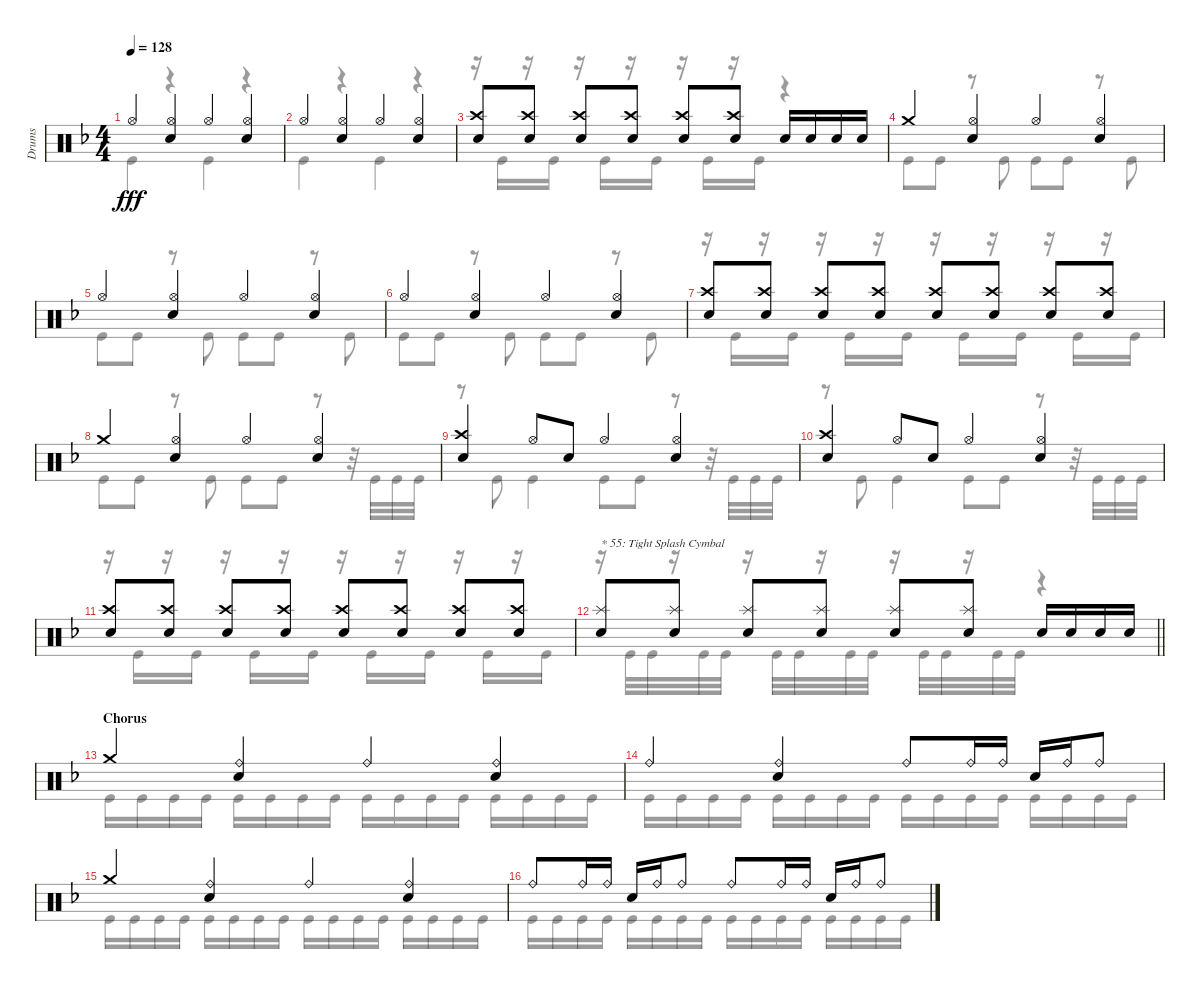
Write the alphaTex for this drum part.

\track ("Drums" "Drums") {instrument percussion}
\staff {score}
\articulation defaults
\voice
\ts (4 4)
\tempo 128
\clef neutral
\ks dminor "Hi-Hat (open)".4{dy fff}
("Hi-Hat (open)" "Electric Snare (hit)").4 "Hi-Hat (open)".4 ("Hi-Hat (open)" "Electric Snare (hit)").4 |
"Hi-Hat (open)".4 ("Hi-Hat (open)" "Electric Snare (hit)").4 "Hi-Hat (open)".4 ("Hi-Hat (open)" "Electric Snare (hit)").4 |
("Crash high (hit)" "Electric Snare (hit)").8 ("Crash high (hit)" "Electric Snare (hit)").8 ("Crash high (hit)" "Electric Snare (hit)").8 ("Crash high (hit)" "Electric Snare (hit)").8 ("Crash high (hit)" "Electric Snare (hit)").8 ("Crash high (hit)" "Electric Snare (hit)").8 "Electric Snare (hit)".16 "Electric Snare (hit)".16 "Electric Snare (hit)".16 "Electric Snare (hit)".16 |
"Crash medium (hit)".4 ("Hi-Hat (open)" "Electric Snare (hit)").4 "Hi-Hat (open)".4 ("Hi-Hat (open)" "Electric Snare (hit)").4 |
"Hi-Hat (open)".4 ("Hi-Hat (open)" "Electric Snare (hit)").4 "Hi-Hat (open)".4 ("Hi-Hat (open)" "Electric Snare (hit)").4 |
"Hi-Hat (open)".4 ("Hi-Hat (open)" "Electric Snare (hit)").4 "Hi-Hat (open)".4 ("Hi-Hat (open)" "Electric Snare (hit)").4 |
("Crash high (hit)" "Electric Snare (hit)").8 ("Crash high (hit)" "Electric Snare (hit)").8 ("Crash high (hit)" "Electric Snare (hit)").8 ("Crash high (hit)" "Electric Snare (hit)").8 ("Crash high (hit)" "Electric Snare (hit)").8 ("Crash high (hit)" "Electric Snare (hit)").8 ("Crash high (hit)" "Electric Snare (hit)").8 ("Crash high (hit)" "Electric Snare (hit)").8 |
"Crash medium (hit)".4 ("Hi-Hat (open)" "Electric Snare (hit)").4 "Hi-Hat (open)".4 ("Hi-Hat (open)" "Electric Snare (hit)").4 |
("Crash high (hit)" "Electric Snare (hit)").4 "Hi-Hat (open)".8 "Electric Snare (hit)".8 "Hi-Hat (open)".4 ("Hi-Hat (open)" "Electric Snare (hit)").4 |
("Crash high (hit)" "Electric Snare (hit)").4 "Hi-Hat (open)".8 "Electric Snare (hit)".8 "Hi-Hat (open)".4 ("Hi-Hat (open)" "Electric Snare (hit)").4 |
("Crash high (hit)" "Electric Snare (hit)").8 ("Crash high (hit)" "Electric Snare (hit)").8 ("Crash high (hit)" "Electric Snare (hit)").8 ("Crash high (hit)" "Electric Snare (hit)").8 ("Crash high (hit)" "Electric Snare (hit)").8 ("Crash high (hit)" "Electric Snare (hit)").8 ("Crash high (hit)" "Electric Snare (hit)").8 ("Crash high (hit)" "Electric Snare (hit)").8 |
\barLineRight lightlight
("Splash (hit)" "Electric Snare (hit)").8{txt "* 55: Tight Splash Cymbal"} ("Splash (hit)" "Electric Snare (hit)").8 ("Splash (hit)" "Electric Snare (hit)").8 ("Splash (hit)" "Electric Snare (hit)").8 ("Splash (hit)" "Electric Snare (hit)").8 ("Splash (hit)" "Electric Snare (hit)").8 "Electric Snare (hit)".16 "Electric Snare (hit)".16 "Electric Snare (hit)".16 "Electric Snare (hit)".16 |
\section ("" "Chorus")
"Crash medium (hit)".4 ("Ride (bell)" "Electric Snare (hit)").4 "Ride (bell)".4 ("Ride (bell)" "Electric Snare (hit)").4 |
"Ride (bell)".4 ("Ride (bell)" "Electric Snare (hit)").4 "Ride (bell)".8 "Ride (bell)".16 "Ride (bell)".16 "Electric Snare (hit)".16 "Ride (bell)".16 "Ride (bell)".8 |
"Crash medium (hit)".4 ("Ride (bell)" "Electric Snare (hit)").4 "Ride (bell)".4 ("Ride (bell)" "Electric Snare (hit)").4 |
"Ride (bell)".8 "Ride (bell)".16 "Ride (bell)".16 "Electric Snare (hit)".16 "Ride (bell)".16 "Ride (bell)".8 "Ride (bell)".8 "Ride (bell)".16 "Ride (bell)".16 "Electric Snare (hit)".16 "Ride (bell)".16 "Ride (bell)".8
\voice
\clef neutral
\ottava regular
\simile none
\ks dminor "Kick (hit)".4{dy fff}
r.4 "Kick (hit)".4 r.4 |
"Kick (hit)".4 r.4 "Kick (hit)".4 r.4 |
r.16 "Kick (hit)".16 r.16 "Kick (hit)".16 r.16 "Kick (hit)".16 r.16 "Kick (hit)".16 r.16 "Kick (hit)".16 r.16 "Kick (hit)".16 r.4 |
"Kick (hit)".8 "Kick (hit)".8 r.8 "Kick (hit)".8 "Kick (hit)".8 "Kick (hit)".8 r.8 "Kick (hit)".8 |
"Kick (hit)".8 "Kick (hit)".8 r.8 "Kick (hit)".8 "Kick (hit)".8 "Kick (hit)".8 r.8 "Kick (hit)".8 |
"Kick (hit)".8 "Kick (hit)".8 r.8 "Kick (hit)".8 "Kick (hit)".8 "Kick (hit)".8 r.8 "Kick (hit)".8 |
r.16 "Kick (hit)".16 r.16 "Kick (hit)".16 r.16 "Kick (hit)".16 r.16 "Kick (hit)".16 r.16 "Kick (hit)".16 r.16 "Kick (hit)".16 r.16 "Kick (hit)".16 r.16 "Kick (hit)".16 |
"Kick (hit)".8 "Kick (hit)".8 r.8 "Kick (hit)".8 "Kick (hit)".8 "Kick (hit)".8 r.8 r.32 "Kick (hit)".32 "Kick (hit)".32 "Kick (hit)".32 |
r.8 "Kick (hit)".8 "Kick (hit)".4 "Kick (hit)".8 "Kick (hit)".8 r.8 r.32 "Kick (hit)".32 "Kick (hit)".32 "Kick (hit)".32 |
r.8 "Kick (hit)".8 "Kick (hit)".4 "Kick (hit)".8 "Kick (hit)".8 r.8 r.32 "Kick (hit)".32 "Kick (hit)".32 "Kick (hit)".32 |
r.16 "Kick (hit)".16 r.16 "Kick (hit)".16 r.16 "Kick (hit)".16 r.16 "Kick (hit)".16 r.16 "Kick (hit)".16 r.16 "Kick (hit)".16 r.16 "Kick (hit)".16 r.16 "Kick (hit)".16 |
\barLineRight lightlight
r.16 "Kick (hit)".32 "Kick (hit)".32 r.16 "Kick (hit)".32 "Kick (hit)".32 r.16 "Kick (hit)".32 "Kick (hit)".32 r.16 "Kick (hit)".32 "Kick (hit)".32 r.16 "Kick (hit)".32 "Kick (hit)".32 r.16 "Kick (hit)".32 "Kick (hit)".32 r.4 |
"Kick (hit)".16 "Kick (hit)".16 "Kick (hit)".16 "Kick (hit)".16 "Kick (hit)".16 "Kick (hit)".16 "Kick (hit)".16 "Kick (hit)".16 "Kick (hit)".16 "Kick (hit)".16 "Kick (hit)".16 "Kick (hit)".16 "Kick (hit)".16 "Kick (hit)".16 "Kick (hit)".16 "Kick (hit)".16 |
"Kick (hit)".16 "Kick (hit)".16 "Kick (hit)".16 "Kick (hit)".16 "Kick (hit)".16 "Kick (hit)".16 "Kick (hit)".16 "Kick (hit)".16 "Kick (hit)".16 "Kick (hit)".16 "Kick (hit)".16 "Kick (hit)".16 "Kick (hit)".16 "Kick (hit)".16 "Kick (hit)".16 "Kick (hit)".16 |
"Kick (hit)".16 "Kick (hit)".16 "Kick (hit)".16 "Kick (hit)".16 "Kick (hit)".16 "Kick (hit)".16 "Kick (hit)".16 "Kick (hit)".16 "Kick (hit)".16 "Kick (hit)".16 "Kick (hit)".16 "Kick (hit)".16 "Kick (hit)".16 "Kick (hit)".16 "Kick (hit)".16 "Kick (hit)".16 |
"Kick (hit)".16 "Kick (hit)".16 "Kick (hit)".16 "Kick (hit)".16 "Kick (hit)".16 "Kick (hit)".16 "Kick (hit)".16 "Kick (hit)".16 "Kick (hit)".16 "Kick (hit)".16 "Kick (hit)".16 "Kick (hit)".16 "Kick (hit)".16 "Kick (hit)".16 "Kick (hit)".16 "Kick (hit)".16
